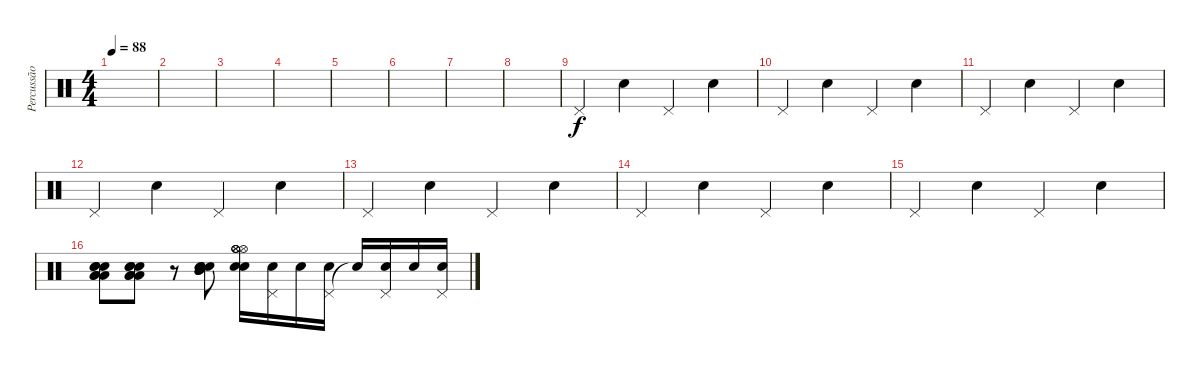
\track ("Percussão" "Percussão") {instrument percussion}
\staff {score}
\articulation defaults
\ts (4 4)
\tempo 88
\clef neutral
\ks c
|
|
|
|
|
|
|
|
"Pedal Hi-Hat (hit)".4 "Electric Snare (hit)".4 "Pedal Hi-Hat (hit)".4 "Electric Snare (hit)".4 |
"Pedal Hi-Hat (hit)".4 "Electric Snare (hit)".4 "Pedal Hi-Hat (hit)".4 "Electric Snare (hit)".4 |
"Pedal Hi-Hat (hit)".4 "Electric Snare (hit)".4 "Pedal Hi-Hat (hit)".4 "Electric Snare (hit)".4 |
"Pedal Hi-Hat (hit)".4 "Electric Snare (hit)".4 "Pedal Hi-Hat (hit)".4 "Electric Snare (hit)".4 |
"Pedal Hi-Hat (hit)".4 "Electric Snare (hit)".4 "Pedal Hi-Hat (hit)".4 "Electric Snare (hit)".4 |
"Pedal Hi-Hat (hit)".4 "Electric Snare (hit)".4 "Pedal Hi-Hat (hit)".4 "Electric Snare (hit)".4 |
"Pedal Hi-Hat (hit)".4 "Electric Snare (hit)".4 "Pedal Hi-Hat (hit)".4 "Electric Snare (hit)".4 |
("Electric Snare (hit)" "Electric Snare (hit)" "Electric Snare (hit)" "Low Tom (hit)" "Low Tom (hit)" "Low Tom (hit)").8 ("Electric Snare (hit)" "Electric Snare (hit)" "Electric Snare (hit)" "Low Tom (hit)" "Low Tom (hit)" "Low Tom (hit)").8 r.8 ("Mid Tom (hit)" "Electric Snare (hit)" "Mid Tom (hit)" "Electric Snare (hit)" "Mid Tom (hit)" "Electric Snare (hit)").8 ("Hi-Hat (open)" "Electric Snare (hit)" "Hi-Hat (open)" "Electric Snare (hit)" "Hi-Hat (open)" "Hi-Hat (open)").16 ("Pedal Hi-Hat (hit)" "Electric Snare (hit)").16 "Electric Snare (hit)".16 ("Pedal Hi-Hat (hit)" "Electric Snare (hit)").16 "Electric Snare (hit)"{t}.16 ("Pedal Hi-Hat (hit)" "Electric Snare (hit)").16 "Electric Snare (hit)".16 ("Pedal Hi-Hat (hit)" "Electric Snare (hit)").16
